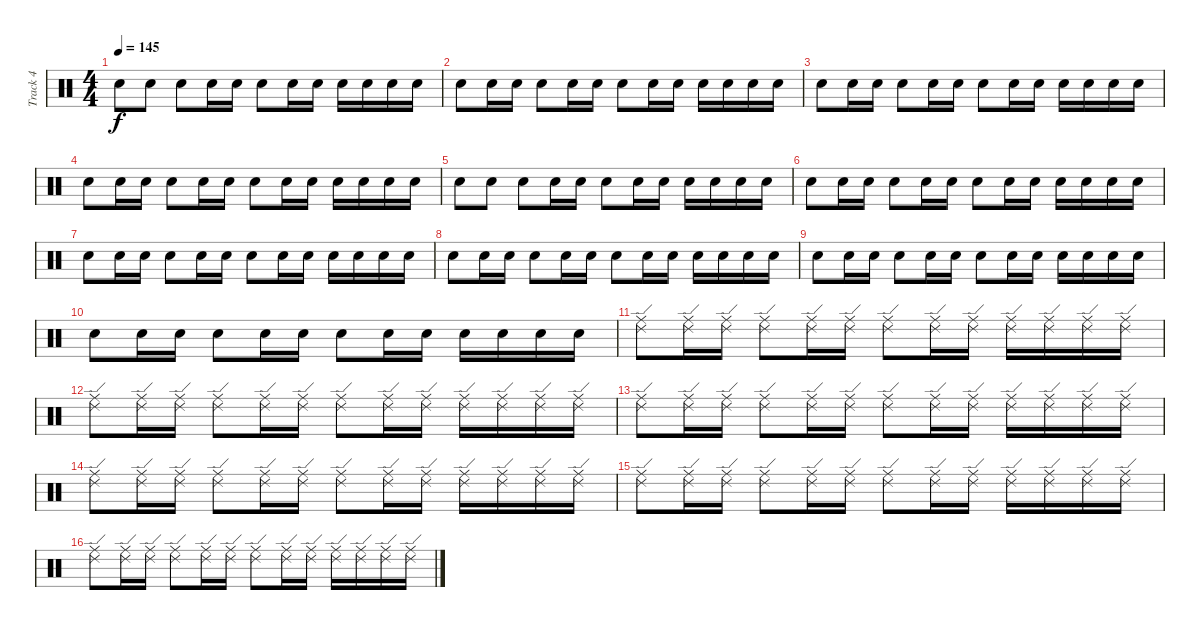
\track ("Track 4" "Track 4") {instrument percussion}
\staff {score}
\articulation defaults
\ts (4 4)
\tempo 145
\clef neutral
\ks c "Snare (hit) 2".8{dy f} "Snare (hit) 2".8 "Snare (hit) 2".8 "Snare (hit) 2".16 "Snare (hit) 2".16 "Snare (hit) 2".8 "Snare (hit) 2".16 "Snare (hit) 2".16 "Snare (hit) 2".16 "Snare (hit) 2".16 "Snare (hit) 2".16 "Snare (hit) 2".16
|
"Snare (hit) 2".8 "Snare (hit) 2".16 "Snare (hit) 2".16 "Snare (hit) 2".8 "Snare (hit) 2".16 "Snare (hit) 2".16 "Snare (hit) 2".8 "Snare (hit) 2".16 "Snare (hit) 2".16 "Snare (hit) 2".16 "Snare (hit) 2".16 "Snare (hit) 2".16 "Snare (hit) 2".16 |
"Snare (hit) 2".8 "Snare (hit) 2".16 "Snare (hit) 2".16 "Snare (hit) 2".8 "Snare (hit) 2".16 "Snare (hit) 2".16 "Snare (hit) 2".8 "Snare (hit) 2".16 "Snare (hit) 2".16 "Snare (hit) 2".16 "Snare (hit) 2".16 "Snare (hit) 2".16 "Snare (hit) 2".16 |
"Snare (hit) 2".8 "Snare (hit) 2".16 "Snare (hit) 2".16 "Snare (hit) 2".8 "Snare (hit) 2".16 "Snare (hit) 2".16 "Snare (hit) 2".8 "Snare (hit) 2".16 "Snare (hit) 2".16 "Snare (hit) 2".16 "Snare (hit) 2".16 "Snare (hit) 2".16 "Snare (hit) 2".16 |
"Snare (hit) 2".8 "Snare (hit) 2".8 "Snare (hit) 2".8 "Snare (hit) 2".16 "Snare (hit) 2".16 "Snare (hit) 2".8 "Snare (hit) 2".16 "Snare (hit) 2".16 "Snare (hit) 2".16 "Snare (hit) 2".16 "Snare (hit) 2".16 "Snare (hit) 2".16 |
"Snare (hit) 2".8 "Snare (hit) 2".16 "Snare (hit) 2".16 "Snare (hit) 2".8 "Snare (hit) 2".16 "Snare (hit) 2".16 "Snare (hit) 2".8 "Snare (hit) 2".16 "Snare (hit) 2".16 "Snare (hit) 2".16 "Snare (hit) 2".16 "Snare (hit) 2".16 "Snare (hit) 2".16 |
"Snare (hit) 2".8 "Snare (hit) 2".16 "Snare (hit) 2".16 "Snare (hit) 2".8 "Snare (hit) 2".16 "Snare (hit) 2".16 "Snare (hit) 2".8 "Snare (hit) 2".16 "Snare (hit) 2".16 "Snare (hit) 2".16 "Snare (hit) 2".16 "Snare (hit) 2".16 "Snare (hit) 2".16 |
"Snare (hit) 2".8 "Snare (hit) 2".16 "Snare (hit) 2".16 "Snare (hit) 2".8 "Snare (hit) 2".16 "Snare (hit) 2".16 "Snare (hit) 2".8 "Snare (hit) 2".16 "Snare (hit) 2".16 "Snare (hit) 2".16 "Snare (hit) 2".16 "Snare (hit) 2".16 "Snare (hit) 2".16 |
"Snare (hit) 2".8 "Snare (hit) 2".16 "Snare (hit) 2".16 "Snare (hit) 2".8 "Snare (hit) 2".16 "Snare (hit) 2".16 "Snare (hit) 2".8 "Snare (hit) 2".16 "Snare (hit) 2".16 "Snare (hit) 2".16 "Snare (hit) 2".16 "Snare (hit) 2".16 "Snare (hit) 2".16 |
"Snare (hit) 2".8 "Snare (hit) 2".16 "Snare (hit) 2".16 "Snare (hit) 2".8 "Snare (hit) 2".16 "Snare (hit) 2".16 "Snare (hit) 2".8 "Snare (hit) 2".16 "Snare (hit) 2".16 "Snare (hit) 2".16 "Snare (hit) 2".16 "Snare (hit) 2".16 "Snare (hit) 2".16 |
("Ride (middle)" "Ride (edge) 2").8 ("Ride (middle)" "Ride (edge) 2").16 ("Ride (middle)" "Ride (edge) 2").16 ("Ride (middle)" "Ride (edge) 2").8 ("Ride (middle)" "Ride (edge) 2").16 ("Ride (middle)" "Ride (edge) 2").16 ("Ride (middle)" "Ride (edge) 2").8 ("Ride (middle)" "Ride (edge) 2").16 ("Ride (middle)" "Ride (edge) 2").16 ("Ride (middle)" "Ride (edge) 2").16 ("Ride (middle)" "Ride (edge) 2").16 ("Ride (middle)" "Ride (edge) 2").16 ("Ride (middle)" "Ride (edge) 2").16 |
("Ride (middle)" "Ride (edge) 2").8 ("Ride (middle)" "Ride (edge) 2").16 ("Ride (middle)" "Ride (edge) 2").16 ("Ride (middle)" "Ride (edge) 2").8 ("Ride (middle)" "Ride (edge) 2").16 ("Ride (middle)" "Ride (edge) 2").16 ("Ride (middle)" "Ride (edge) 2").8 ("Ride (middle)" "Ride (edge) 2").16 ("Ride (middle)" "Ride (edge) 2").16 ("Ride (middle)" "Ride (edge) 2").16 ("Ride (middle)" "Ride (edge) 2").16 ("Ride (middle)" "Ride (edge) 2").16 ("Ride (middle)" "Ride (edge) 2").16 |
("Ride (middle)" "Ride (edge) 2").8 ("Ride (middle)" "Ride (edge) 2").16 ("Ride (middle)" "Ride (edge) 2").16 ("Ride (middle)" "Ride (edge) 2").8 ("Ride (middle)" "Ride (edge) 2").16 ("Ride (middle)" "Ride (edge) 2").16 ("Ride (middle)" "Ride (edge) 2").8 ("Ride (middle)" "Ride (edge) 2").16 ("Ride (middle)" "Ride (edge) 2").16 ("Ride (middle)" "Ride (edge) 2").16 ("Ride (middle)" "Ride (edge) 2").16 ("Ride (middle)" "Ride (edge) 2").16 ("Ride (middle)" "Ride (edge) 2").16 |
("Ride (middle)" "Ride (edge) 2").8 ("Ride (middle)" "Ride (edge) 2").16 ("Ride (middle)" "Ride (edge) 2").16 ("Ride (middle)" "Ride (edge) 2").8 ("Ride (middle)" "Ride (edge) 2").16 ("Ride (middle)" "Ride (edge) 2").16 ("Ride (middle)" "Ride (edge) 2").8 ("Ride (middle)" "Ride (edge) 2").16 ("Ride (middle)" "Ride (edge) 2").16 ("Ride (middle)" "Ride (edge) 2").16 ("Ride (middle)" "Ride (edge) 2").16 ("Ride (middle)" "Ride (edge) 2").16 ("Ride (middle)" "Ride (edge) 2").16 |
("Ride (middle)" "Ride (edge) 2").8 ("Ride (middle)" "Ride (edge) 2").16 ("Ride (middle)" "Ride (edge) 2").16 ("Ride (middle)" "Ride (edge) 2").8 ("Ride (middle)" "Ride (edge) 2").16 ("Ride (middle)" "Ride (edge) 2").16 ("Ride (middle)" "Ride (edge) 2").8 ("Ride (middle)" "Ride (edge) 2").16 ("Ride (middle)" "Ride (edge) 2").16 ("Ride (middle)" "Ride (edge) 2").16 ("Ride (middle)" "Ride (edge) 2").16 ("Ride (middle)" "Ride (edge) 2").16 ("Ride (middle)" "Ride (edge) 2").16 |
("Ride (middle)" "Ride (edge) 2").8 ("Ride (middle)" "Ride (edge) 2").16 ("Ride (middle)" "Ride (edge) 2").16 ("Ride (middle)" "Ride (edge) 2").8 ("Ride (middle)" "Ride (edge) 2").16 ("Ride (middle)" "Ride (edge) 2").16 ("Ride (middle)" "Ride (edge) 2").8 ("Ride (middle)" "Ride (edge) 2").16 ("Ride (middle)" "Ride (edge) 2").16 ("Ride (middle)" "Ride (edge) 2").16 ("Ride (middle)" "Ride (edge) 2").16 ("Ride (middle)" "Ride (edge) 2").16 ("Ride (middle)" "Ride (edge) 2").16
